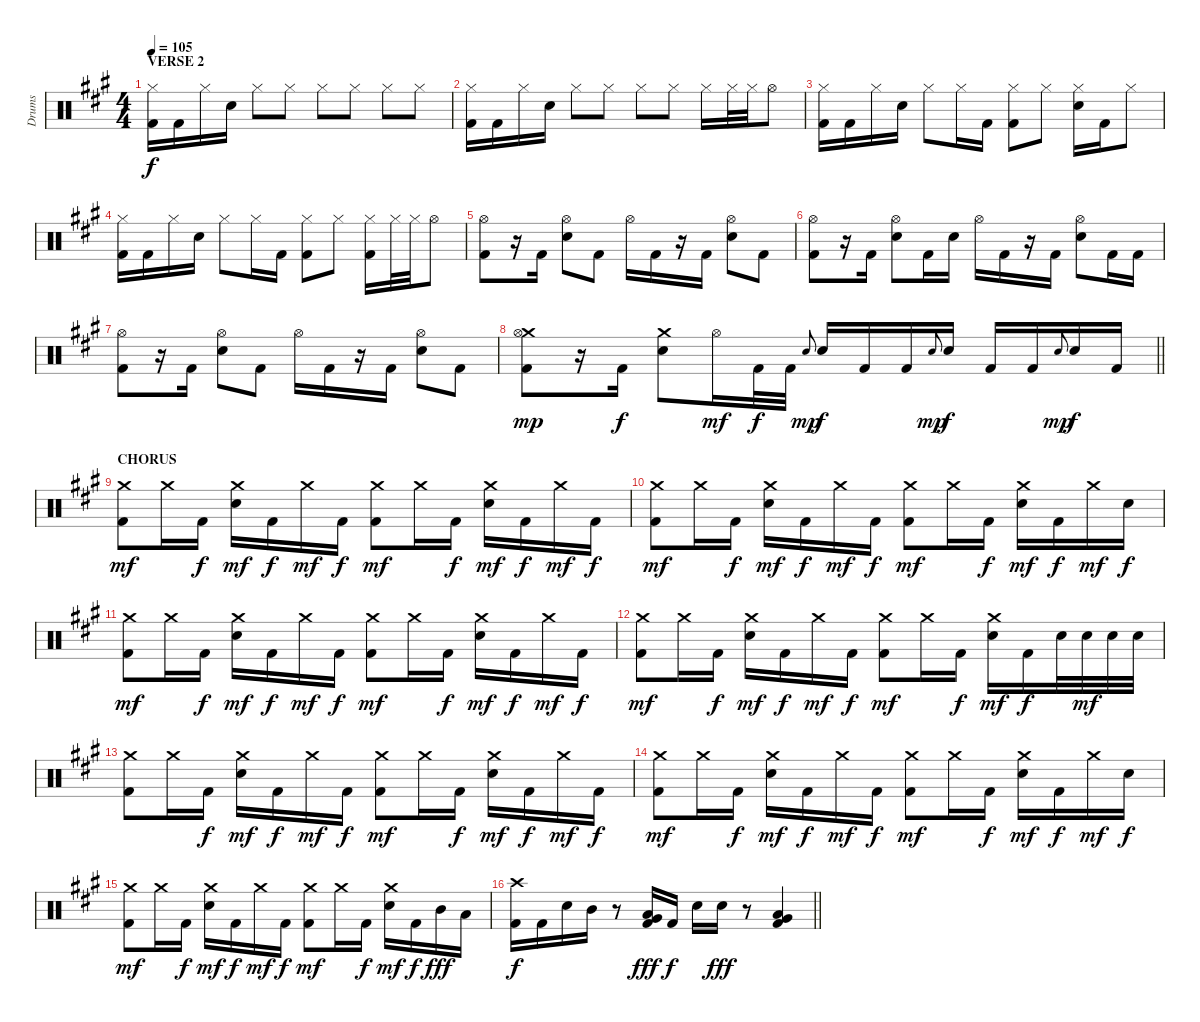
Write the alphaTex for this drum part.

\track ("Drums" "Drums") {instrument percussion}
\staff {score}
\articulation defaults
\ts (4 4)
\section ("" "VERSE 2")
\tempo 105
\clef neutral
\ks f#minor
("Hi-Hat (closed)" "Kick (hit) 2").16{dy f} "Kick (hit) 2".16 "Hi-Hat (closed)".16 "Electric Snare (hit)".16 "Hi-Hat (closed)".8 "Hi-Hat (closed)".8 "Hi-Hat (closed)".8 "Hi-Hat (closed)".8 "Hi-Hat (closed)".8 "Hi-Hat (closed)".8 |
("Hi-Hat (closed)" "Kick (hit) 2").16 "Kick (hit) 2".16 "Hi-Hat (closed)".16 "Electric Snare (hit)".16 "Hi-Hat (closed)".8 "Hi-Hat (closed)".8 "Hi-Hat (closed)".8 "Hi-Hat (closed)".8 "Hi-Hat (closed)".16 "Hi-Hat (closed)".32 "Hi-Hat (closed)".32 "Hi-Hat (open)".8 |
("Hi-Hat (closed)" "Kick (hit) 2").16 "Kick (hit) 2".16 "Hi-Hat (closed)".16 "Electric Snare (hit)".16 "Hi-Hat (closed)".8 "Hi-Hat (closed)".16 "Kick (hit) 2".16 ("Hi-Hat (closed)" "Kick (hit) 2").8 "Hi-Hat (closed)".8 ("Electric Snare (hit)" "Hi-Hat (closed)").16 "Kick (hit) 2".16 "Hi-Hat (closed)".8 |
("Hi-Hat (closed)" "Kick (hit) 2").16 "Kick (hit) 2".16 "Hi-Hat (closed)".16 "Electric Snare (hit)".16 "Hi-Hat (closed)".8 "Hi-Hat (closed)".16 "Kick (hit) 2".16 ("Hi-Hat (closed)" "Kick (hit) 2").8 "Hi-Hat (closed)".8 ("Hi-Hat (closed)" "Kick (hit) 2").16 "Hi-Hat (closed)".32 "Hi-Hat (closed)".32 "Hi-Hat (open)".8 |
("Hi-Hat (open)" "Kick (hit) 2").8 r.16 "Kick (hit) 2".16 ("Electric Snare (hit)" "Hi-Hat (open)").8 "Kick (hit) 2".8 "Hi-Hat (open)".16 "Kick (hit) 2".16 r.16 "Kick (hit) 2".16 ("Electric Snare (hit)" "Hi-Hat (open)").8 "Kick (hit) 2".8 |
("Hi-Hat (open)" "Kick (hit) 2").8 r.16 "Kick (hit) 2".16 ("Electric Snare (hit)" "Hi-Hat (open)").8 "Kick (hit) 2".16 "Electric Snare (hit)".16 "Hi-Hat (open)".16 "Kick (hit) 2".16 r.16 "Kick (hit) 2".16 ("Electric Snare (hit)" "Hi-Hat (open)").8 "Kick (hit) 2".16 "Kick (hit) 2".16 |
("Hi-Hat (open)" "Kick (hit) 2").8 r.16 "Kick (hit) 2".16 ("Electric Snare (hit)" "Hi-Hat (open)").8 "Kick (hit) 2".8 "Hi-Hat (open)".16 "Kick (hit) 2".16 r.16 "Kick (hit) 2".16 ("Electric Snare (hit)" "Hi-Hat (open)").8 "Kick (hit) 2".8 |
\barLineRight lightlight
("Crash medium (hit)" "Hi-Hat (open)" "Kick (hit) 2").8{dy mp} r.16 "Kick (hit) 2".16{dy f} ("Electric Snare (hit)" "Crash medium (hit)").8 "Hi-Hat (open)".16{dy mf} "Kick (hit) 2".32{dy f} "Kick (hit) 2".32 "Electric Snare (hit)".8{gr onbeat dy mp} "Electric Snare (hit)".16{dy f} "Kick (hit) 2".16 "Kick (hit) 2".16 "Electric Snare (hit)".8{gr onbeat dy mp} "Electric Snare (hit)".16{dy f} "Kick (hit) 2".16 "Kick (hit) 2".16 "Electric Snare (hit)".8{gr onbeat dy mp} "Electric Snare (hit)".16{dy f} "Kick (hit) 2".16 |
\section ("" "CHORUS ")
("Crash medium (hit)" "Kick (hit) 2").8{dy mf} "Crash medium (hit)".16 "Kick (hit) 2".16{dy f} ("Electric Snare (hit)" "Crash medium (hit)").16{dy mf} "Kick (hit) 2".16{dy f} "Crash medium (hit)".16{dy mf} "Kick (hit) 2".16{dy f} ("Crash medium (hit)" "Kick (hit) 2").8{dy mf} "Crash medium (hit)".16 "Kick (hit) 2".16{dy f} ("Electric Snare (hit)" "Crash medium (hit)").16{dy mf} "Kick (hit) 2".16{dy f} "Crash medium (hit)".16{dy mf} "Kick (hit) 2".16{dy f} |
("Crash medium (hit)" "Kick (hit) 2").8{dy mf} "Crash medium (hit)".16 "Kick (hit) 2".16{dy f} ("Electric Snare (hit)" "Crash medium (hit)").16{dy mf} "Kick (hit) 2".16{dy f} "Crash medium (hit)".16{dy mf} "Kick (hit) 2".16{dy f} ("Crash medium (hit)" "Kick (hit) 2").8{dy mf} "Crash medium (hit)".16 "Kick (hit) 2".16{dy f} ("Electric Snare (hit)" "Crash medium (hit)").16{dy mf} "Kick (hit) 2".16{dy f} "Crash medium (hit)".16{dy mf} "Electric Snare (hit)".16{dy f} |
("Crash medium (hit)" "Kick (hit) 2").8{dy mf} "Crash medium (hit)".16 "Kick (hit) 2".16{dy f} ("Electric Snare (hit)" "Crash medium (hit)").16{dy mf} "Kick (hit) 2".16{dy f} "Crash medium (hit)".16{dy mf} "Kick (hit) 2".16{dy f} ("Crash medium (hit)" "Kick (hit) 2").8{dy mf} "Crash medium (hit)".16 "Kick (hit) 2".16{dy f} ("Electric Snare (hit)" "Crash medium (hit)").16{dy mf} "Kick (hit) 2".16{dy f} "Crash medium (hit)".16{dy mf} "Kick (hit) 2".16{dy f} |
("Crash medium (hit)" "Kick (hit) 2").8{dy mf} "Crash medium (hit)".16 "Kick (hit) 2".16{dy f} ("Electric Snare (hit)" "Crash medium (hit)").16{dy mf} "Kick (hit) 2".16{dy f} "Crash medium (hit)".16{dy mf} "Kick (hit) 2".16{dy f} ("Crash medium (hit)" "Kick (hit) 2").8{dy mf} "Crash medium (hit)".16 "Kick (hit) 2".16{dy f} ("Electric Snare (hit)" "Crash medium (hit)").16{dy mf} "Kick (hit) 2".16{dy f} "Electric Snare (hit)".32 "Electric Snare (hit)".32{dy mf} "Electric Snare (hit)".32 "Electric Snare (hit)".32 |
("Crash medium (hit)" "Kick (hit) 2").8 "Crash medium (hit)".16 "Kick (hit) 2".16{dy f} ("Electric Snare (hit)" "Crash medium (hit)").16{dy mf} "Kick (hit) 2".16{dy f} "Crash medium (hit)".16{dy mf} "Kick (hit) 2".16{dy f} ("Crash medium (hit)" "Kick (hit) 2").8{dy mf} "Crash medium (hit)".16 "Kick (hit) 2".16{dy f} ("Electric Snare (hit)" "Crash medium (hit)").16{dy mf} "Kick (hit) 2".16{dy f} "Crash medium (hit)".16{dy mf} "Kick (hit) 2".16{dy f} |
("Crash medium (hit)" "Kick (hit) 2").8{dy mf} "Crash medium (hit)".16 "Kick (hit) 2".16{dy f} ("Electric Snare (hit)" "Crash medium (hit)").16{dy mf} "Kick (hit) 2".16{dy f} "Crash medium (hit)".16{dy mf} "Kick (hit) 2".16{dy f} ("Crash medium (hit)" "Kick (hit) 2").8{dy mf} "Crash medium (hit)".16 "Kick (hit) 2".16{dy f} ("Electric Snare (hit)" "Crash medium (hit)").16{dy mf} "Kick (hit) 2".16{dy f} "Crash medium (hit)".16{dy mf} "Electric Snare (hit)".16{dy f} |
("Crash medium (hit)" "Kick (hit) 2").8{dy mf} "Crash medium (hit)".16 "Kick (hit) 2".16{dy f} ("Electric Snare (hit)" "Crash medium (hit)").16{dy mf} "Kick (hit) 2".16{dy f} "Crash medium (hit)".16{dy mf} "Kick (hit) 2".16{dy f} ("Crash medium (hit)" "Kick (hit) 2").8{dy mf} "Crash medium (hit)".16 "Kick (hit) 2".16{dy f} ("Electric Snare (hit)" "Crash medium (hit)").16{dy mf} "Kick (hit) 2".16{dy f} "Mid Tom (hit)".16{dy fff} "Low Tom (hit)".16 |
\barLineRight lightlight
("Crash high (hit)" "Kick (hit) 2").16{dy f} "Kick (hit) 2".16 "Electric Snare (hit)".16 "Mid Tom (hit)".16 r.8 ("Low Floor Tom (hit)" "Very Low Tom (hit)" "Kick (hit) 2").16{dy fff} "Kick (hit) 2".16{dy f} "Electric Snare (hit)".16 "Electric Snare (hit)".16{dy fff} r.8 ("Low Floor Tom (hit)" "Very Low Tom (hit)" "Kick (hit) 2").4
